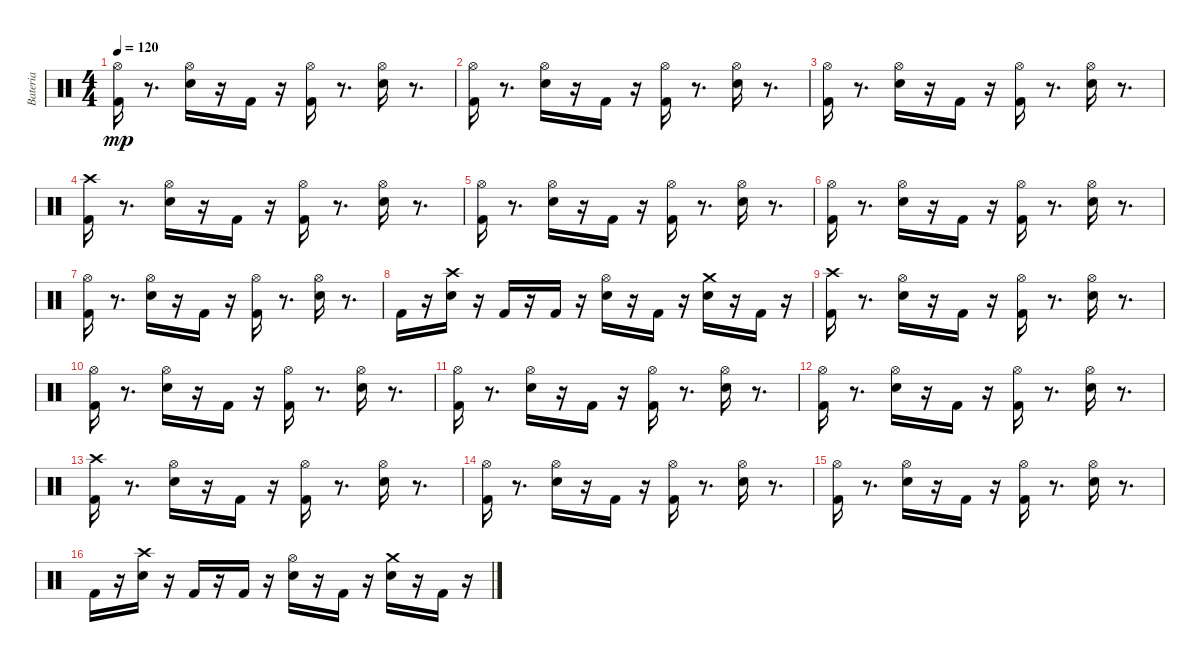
\track ("Bateria" "Bateria") {instrument percussion}
\staff {score}
\articulation defaults
\ts (4 4)
\tempo 120
\clef neutral
\ks c
("Hi-Hat (open)" "Kick (hit) 2").16{dy mp} r.8{d} ("Hi-Hat (open)" "Snare (hit) 2").16 r.16 "Kick (hit) 2".16 r.16 ("Hi-Hat (open)" "Kick (hit) 2").16 r.8{d} ("Hi-Hat (open)" "Snare (hit) 2").16 r.8{d} |
("Hi-Hat (open)" "Kick (hit) 2").16 r.8{d} ("Snare (hit) 2" "Hi-Hat (open)").16 r.16 "Kick (hit) 2".16 r.16 ("Hi-Hat (open)" "Kick (hit) 2").16 r.8{d} ("Hi-Hat (open)" "Snare (hit) 2").16 r.8{d} |
("Hi-Hat (open)" "Kick (hit) 2").16 r.8{d} ("Hi-Hat (open)" "Snare (hit) 2").16 r.16 "Kick (hit) 2".16 r.16 ("Hi-Hat (open)" "Kick (hit) 2").16 r.8{d} ("Hi-Hat (open)" "Snare (hit) 2").16 r.8{d} |
("Kick (hit) 2" "Crash high (hit)").16 r.8{d} ("Snare (hit) 2" "Hi-Hat (open)").16 r.16 "Kick (hit) 2".16 r.16 ("Hi-Hat (open)" "Kick (hit) 2").16 r.8{d} ("Hi-Hat (open)" "Snare (hit) 2").16 r.8{d} |
("Hi-Hat (open)" "Kick (hit) 2").16 r.8{d} ("Hi-Hat (open)" "Snare (hit) 2").16 r.16 "Kick (hit) 2".16 r.16 ("Hi-Hat (open)" "Kick (hit) 2").16 r.8{d} ("Hi-Hat (open)" "Snare (hit) 2").16 r.8{d} |
("Hi-Hat (open)" "Kick (hit) 2").16 r.8{d} ("Hi-Hat (open)" "Snare (hit) 2").16 r.16 "Kick (hit) 2".16 r.16 ("Hi-Hat (open)" "Kick (hit) 2").16 r.8{d} ("Hi-Hat (open)" "Snare (hit) 2").16 r.8{d} |
("Hi-Hat (open)" "Kick (hit) 2").16 r.8{d} ("Hi-Hat (open)" "Snare (hit) 2").16 r.16 "Kick (hit) 2".16 r.16 ("Hi-Hat (open)" "Kick (hit) 2").16 r.8{d} ("Hi-Hat (open)" "Snare (hit) 2").16 r.8{d} |
"Kick (hit) 2".16 r.16 ("Snare (hit) 2" "Crash high (hit)").16 r.16 "Kick (hit) 2".16 r.16 "Kick (hit) 2".16 r.16 ("Hi-Hat (open)" "Snare (hit) 2").16 r.16 "Kick (hit) 2".16 r.16 ("Snare (hit) 2" "Crash medium (hit)").16 r.16 "Kick (hit) 2".16 r.16 |
("Kick (hit) 2" "Crash high (hit)").16 r.8{d} ("Snare (hit) 2" "Hi-Hat (open)").16 r.16 "Kick (hit) 2".16 r.16 ("Hi-Hat (open)" "Kick (hit) 2").16 r.8{d} ("Hi-Hat (open)" "Snare (hit) 2").16 r.8{d} |
("Hi-Hat (open)" "Kick (hit) 2").16 r.8{d} ("Hi-Hat (open)" "Snare (hit) 2").16 r.16 "Kick (hit) 2".16 r.16 ("Hi-Hat (open)" "Kick (hit) 2").16 r.8{d} ("Hi-Hat (open)" "Snare (hit) 2").16 r.8{d} |
("Hi-Hat (open)" "Kick (hit) 2").16 r.8{d} ("Snare (hit) 2" "Hi-Hat (open)").16 r.16 "Kick (hit) 2".16 r.16 ("Hi-Hat (open)" "Kick (hit) 2").16 r.8{d} ("Hi-Hat (open)" "Snare (hit) 2").16 r.8{d} |
("Hi-Hat (open)" "Kick (hit) 2").16 r.8{d} ("Hi-Hat (open)" "Snare (hit) 2").16 r.16 "Kick (hit) 2".16 r.16 ("Hi-Hat (open)" "Kick (hit) 2").16 r.8{d} ("Hi-Hat (open)" "Snare (hit) 2").16 r.8{d} |
("Kick (hit) 2" "Crash high (hit)").16 r.8{d} ("Snare (hit) 2" "Hi-Hat (open)").16 r.16 "Kick (hit) 2".16 r.16 ("Hi-Hat (open)" "Kick (hit) 2").16 r.8{d} ("Hi-Hat (open)" "Snare (hit) 2").16 r.8{d} |
("Hi-Hat (open)" "Kick (hit) 2").16 r.8{d} ("Hi-Hat (open)" "Snare (hit) 2").16 r.16 "Kick (hit) 2".16 r.16 ("Hi-Hat (open)" "Kick (hit) 2").16 r.8{d} ("Hi-Hat (open)" "Snare (hit) 2").16 r.8{d} |
("Hi-Hat (open)" "Kick (hit) 2").16 r.8{d} ("Hi-Hat (open)" "Snare (hit) 2").16 r.16 "Kick (hit) 2".16 r.16 ("Hi-Hat (open)" "Kick (hit) 2").16 r.8{d} ("Hi-Hat (open)" "Snare (hit) 2").16 r.8{d} |
"Kick (hit) 2".16 r.16 ("Snare (hit) 2" "Crash high (hit)").16 r.16 "Kick (hit) 2".16 r.16 "Kick (hit) 2".16 r.16 ("Hi-Hat (open)" "Snare (hit) 2").16 r.16 "Kick (hit) 2".16 r.16 ("Snare (hit) 2" "Crash medium (hit)").16 r.16 "Kick (hit) 2".16 r.16
